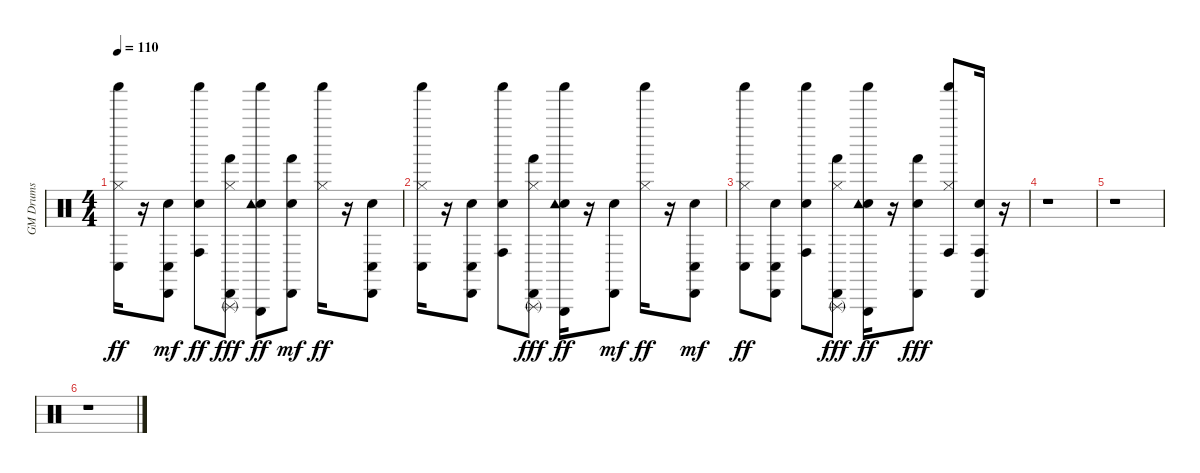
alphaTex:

\track ("GM Drums" "GM Drums") {instrument percussion}
\staff {score}
\articulation defaults
\ts (4 4)
\tempo 110
\clef neutral
\ks c
("Hi-Hat (closed)" "Conga low (hit)" "Shaker (hit)").16{dy ff} r.16 ("Snare (hit)" "Conga low (hit)" "Cabasa (hit)").8{dy mf} ("Snare (hit)" "Conga high (hit)" "Shaker (hit)").8{dy ff} ("Hi-Hat (closed)" "Hand (hit)" "Cabasa (hit)" "Triangle (rnute)").8{dy fff} ("Snare (hit)" "Tambourine (hit)" "Triangle (hit)" "Shaker (hit)").8{dy ff} ("Snare (hit)" "Hand (hit)" "Cabasa (hit)").8{dy mf} ("Hi-Hat (closed)" "Shaker (hit)").16{dy ff} r.16 ("Snare (hit)" "Conga low (hit)" "Cabasa (hit)").8 |
("Hi-Hat (closed)" "Conga low (hit)" "Shaker (hit)").16 r.16 ("Snare (hit)" "Conga low (hit)" "Cabasa (hit)").8 ("Snare (hit)" "Conga high (hit)" "Shaker (hit)").8 ("Hi-Hat (closed)" "Hand (hit)" "Cabasa (hit)" "Triangle (rnute)").8{dy fff} ("Snare (hit)" "Tambourine (hit)" "Triangle (hit)" "Shaker (hit)").16{dy ff} r.16 ("Snare (hit)" "Cabasa (hit)").8{dy mf} ("Hi-Hat (closed)" "Shaker (hit)").16{dy ff} r.16 ("Snare (hit)" "Conga low (hit)" "Cabasa (hit)").8{dy mf} |
("Hi-Hat (closed)" "Conga low (hit)" "Shaker (hit)").8{dy ff} ("Snare (hit)" "Conga low (hit)" "Cabasa (hit)").8 ("Snare (hit)" "Conga high (hit)" "Shaker (hit)").8 ("Hi-Hat (closed)" "Hand (hit)" "Cabasa (hit)" "Triangle (rnute)").8{dy fff} ("Snare (hit)" "Tambourine (hit)" "Triangle (hit)" "Shaker (hit)").16{dy ff} r.16 ("Snare (hit)" "Hand (hit)" "Cabasa (hit)").8{dy fff} ("Hi-Hat (closed)" "Conga high (hit)" "Shaker (hit)").8 ("Snare (hit)" "Conga high (hit)" "Cabasa (hit)").16 r.16 |
r.1 |
r.1 |
r.1
